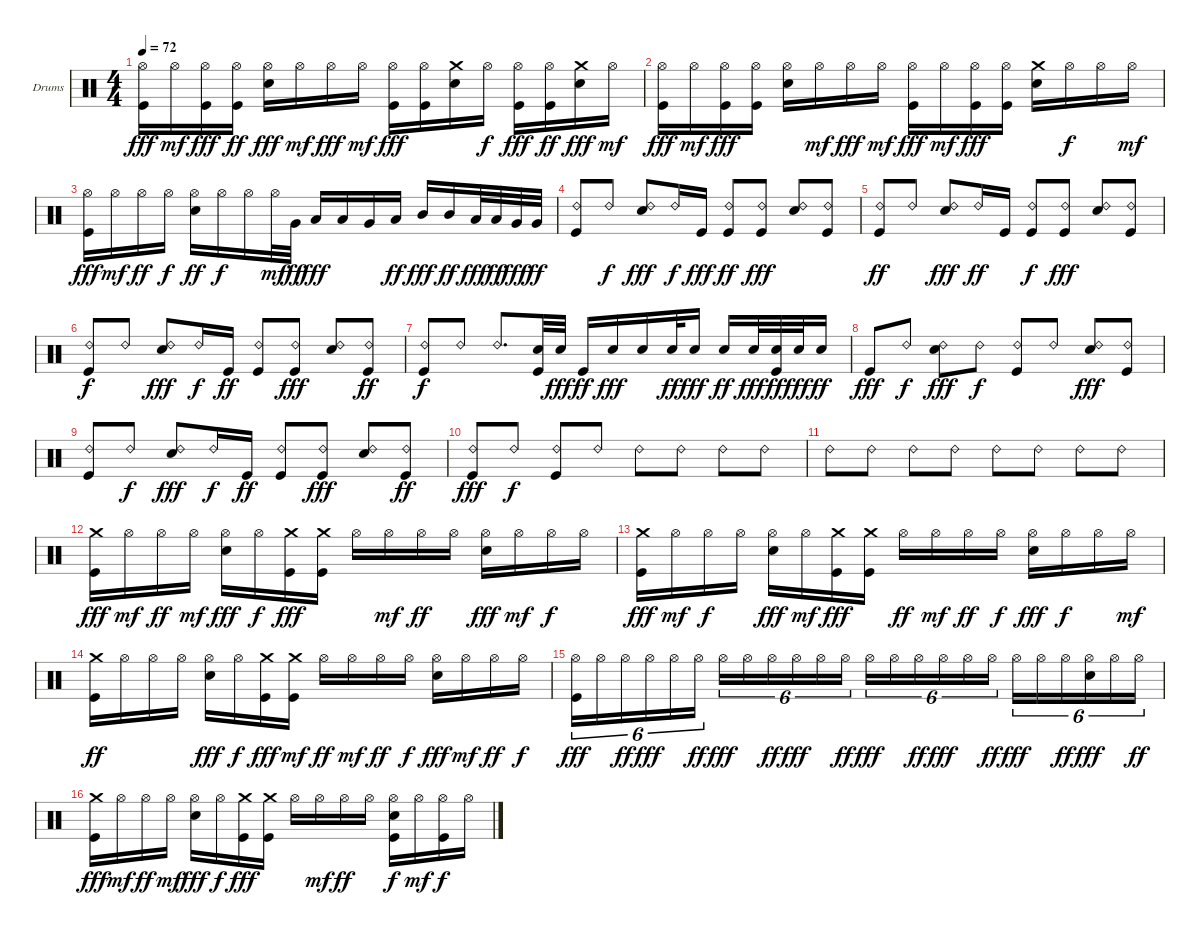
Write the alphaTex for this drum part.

\bracketExtendMode groupsimilarinstruments
\firstSystemTrackNameOrientation horizontal
\otherSystemsTrackNameOrientation horizontal
\track ("Drumkit" "Drums") {instrument percussion}
\staff {score}
\articulation defaults
\ts (4 4)
\tempo 72
\clef neutral
\ks c
("Kick (hit)" "Hi-Hat (open)").16{dy fff} "Hi-Hat (open)".16{dy mf} ("Kick (hit)" "Hi-Hat (open)").16{dy fff} ("Kick (hit)" "Hi-Hat (open)").16{dy ff} ("Snare (hit) 2" "Hi-Hat (open)").16{dy fff} "Hi-Hat (open)".16{dy mf} "Hi-Hat (open)".16{dy fff} "Hi-Hat (open)".16{dy mf} ("Kick (hit)" "Hi-Hat (open)").16{dy fff} ("Kick (hit)" "Hi-Hat (open)").16 ("Snare (hit) 2" "Crash medium (hit)").16 "Hi-Hat (open)".16{dy f} ("Kick (hit)" "Hi-Hat (open)").16{dy fff} ("Kick (hit)" "Hi-Hat (open)").16{dy ff} ("Snare (hit) 2" "Crash medium (hit)").16{dy fff} "Hi-Hat (open)".16{dy mf} |
("Kick (hit)" "Hi-Hat (open)").16{dy fff} "Hi-Hat (open)".16{dy mf} ("Kick (hit)" "Hi-Hat (open)").16{dy fff} ("Kick (hit)" "Hi-Hat (open)").16 ("Snare (hit) 2" "Hi-Hat (open)").16 "Hi-Hat (open)".16{dy mf} "Hi-Hat (open)".16{dy fff} "Hi-Hat (open)".16{dy mf} ("Kick (hit)" "Hi-Hat (open)").16{dy fff} "Hi-Hat (open)".16{dy mf} ("Kick (hit)" "Hi-Hat (open)").16{dy fff} ("Kick (hit)" "Hi-Hat (open)").16 ("Snare (hit) 2" "Crash medium (hit)").16 "Hi-Hat (open)".16{dy f} "Hi-Hat (open)".16 "Hi-Hat (open)".16{dy mf} |
("Kick (hit)" "Hi-Hat (open)").16{dy fff} "Hi-Hat (open)".16{dy mf} "Hi-Hat (open)".16{dy ff} "Hi-Hat (open)".16{dy f} ("Hi-Hat (open)" "Snare (hit) 2").16{dy ff} "Hi-Hat (open)".16{dy f} "Hi-Hat (open)".16 "Hi-Hat (open)".32{dy mf} "Very Low Tom (hit)".32{dy ff} "Low Tom (hit)".16{dy fff} "Low Tom (hit)".16 "Very Low Tom (hit)".16 "Low Tom (hit)".16{dy ff} "Mid Tom (hit)".16{dy fff} "Mid Tom (hit)".16{dy ff} "Low Tom (hit)".32{dy fff} "Low Tom (hit)".32{dy ff} "Very Low Tom (hit)".32{dy fff} "Very Low Tom (hit)".32{dy ff} |
("Ride (bell) 2" "Kick (hit)").8 "Ride (bell) 2".8{dy f} ("Snare (hit) 2" "Ride (bell) 2").8{dy fff} "Ride (bell) 2".16{dy f} "Kick (hit)".16{dy fff} ("Ride (bell) 2" "Kick (hit)").8{dy ff} ("Kick (hit)" "Ride (bell) 2").8{dy fff} ("Snare (hit) 2" "Ride (bell) 2").8 ("Kick (hit)" "Ride (bell) 2").8 |
("Ride (bell) 2" "Kick (hit)").8{dy ff} "Ride (bell) 2".8 ("Snare (hit) 2" "Ride (bell) 2").8{dy fff} "Ride (bell) 2".16{dy ff} "Kick (hit)".16 ("Ride (bell) 2" "Kick (hit)").8{dy f} ("Kick (hit)" "Ride (bell) 2").8{dy fff} ("Snare (hit) 2" "Ride (bell) 2").8 ("Kick (hit)" "Ride (bell) 2").8 |
("Ride (bell) 2" "Kick (hit)").8{dy f} "Ride (bell) 2".8 ("Snare (hit) 2" "Ride (bell) 2").8{dy fff} "Ride (bell) 2".16{dy f} "Kick (hit)".16{dy ff} ("Kick (hit)" "Ride (bell) 2").8 ("Kick (hit)" "Ride (bell) 2").8{dy fff} ("Snare (hit) 2" "Ride (bell) 2").8 ("Kick (hit)" "Ride (bell) 2").8{dy ff} |
("Ride (bell) 2" "Kick (hit)").8{dy f} "Ride (bell) 2".8 "Ride (bell) 2".8{d} ("Kick (hit)" "Snare (hit) 2").32 "Snare (hit) 2".32{dy fff} "Kick (hit)".16{dy ff} "Snare (hit) 2".16{dy fff} "Snare (hit) 2".16 "Snare (hit) 2".32{dy ff} "Snare (hit) 2".16{dy fff} "Snare (hit) 2".16{dy ff} "Snare (hit) 2".32{dy fff} ("Kick (hit)" "Snare (hit) 2").32{dy ff} "Snare (hit) 2".32{dy fff} "Snare (hit) 2".16{dy ff} |
"Kick (hit)".8{dy fff} "Ride (bell) 2".8{dy f} ("Snare (hit) 2" "Ride (bell) 2").8{dy fff} "Ride (bell) 2".8{dy f} ("Ride (bell) 2" "Kick (hit)").8 "Ride (bell) 2".8 ("Snare (hit) 2" "Ride (bell) 2").8{dy fff} ("Kick (hit)" "Ride (bell) 2").8 |
("Kick (hit)" "Ride (bell) 2").8 "Ride (bell) 2".8{dy f} ("Snare (hit) 2" "Ride (bell) 2").8{dy fff} "Ride (bell) 2".16{dy f} "Kick (hit)".16{dy ff} ("Kick (hit)" "Ride (bell) 2").8 ("Kick (hit)" "Ride (bell) 2").8{dy fff} ("Snare (hit) 2" "Ride (bell) 2").8 ("Kick (hit)" "Ride (bell) 2").8{dy ff} |
("Kick (hit)" "Ride (bell) 2").8{dy fff} "Ride (bell) 2".8{dy f} ("Ride (bell) 2" "Kick (hit)").8 "Ride (bell) 2".8 "Ride (bell) 2".8 "Ride (bell) 2".8 "Ride (bell) 2".8 "Ride (bell) 2".8 |
"Ride (bell) 2".8 "Ride (bell) 2".8 "Ride (bell) 2".8 "Ride (bell) 2".8 "Ride (bell) 2".8 "Ride (bell) 2".8 "Ride (bell) 2".8 "Ride (bell) 2".8 |
("Kick (hit)" "Crash medium (hit)").16{dy fff} "Hi-Hat (open)".16{dy mf} "Hi-Hat (open)".16{dy ff} "Hi-Hat (open)".16{dy mf} ("Snare (hit) 2" "Hi-Hat (open)").16{dy fff} "Hi-Hat (open)".16{dy f} ("Kick (hit)" "Crash medium (hit)").16{dy fff} ("Kick (hit)" "Crash medium (hit)").16 "Hi-Hat (open)".16 "Hi-Hat (open)".16{dy mf} "Hi-Hat (open)".16{dy ff} "Hi-Hat (open)".16 ("Snare (hit) 2" "Hi-Hat (open)").16{dy fff} "Hi-Hat (open)".16{dy mf} "Hi-Hat (open)".16{dy f} "Hi-Hat (open)".16 |
("Kick (hit)" "Crash medium (hit)").16{dy fff} "Hi-Hat (open)".16{dy mf} "Hi-Hat (open)".16{dy f} "Hi-Hat (open)".16 ("Snare (hit) 2" "Hi-Hat (open)").16{dy fff} "Hi-Hat (open)".16{dy mf} ("Kick (hit)" "Crash medium (hit)").16{dy fff} ("Kick (hit)" "Crash medium (hit)").16 "Hi-Hat (open)".16{dy ff} "Hi-Hat (open)".16{dy mf} "Hi-Hat (open)".16{dy ff} "Hi-Hat (open)".16{dy f} ("Snare (hit) 2" "Hi-Hat (open)").16{dy fff} "Hi-Hat (open)".16{dy f} "Hi-Hat (open)".16 "Hi-Hat (open)".16{dy mf} |
("Crash medium (hit)" "Kick (hit)").16{dy ff} "Hi-Hat (open)".16 "Hi-Hat (open)".16 "Hi-Hat (open)".16 ("Snare (hit) 2" "Hi-Hat (open)").16{dy fff} "Hi-Hat (open)".16{dy f} ("Kick (hit)" "Crash medium (hit)").16{dy fff} ("Crash medium (hit)" "Kick (hit)").16{dy mf} "Hi-Hat (open)".16{dy ff} "Hi-Hat (open)".16{dy mf} "Hi-Hat (open)".16{dy ff} "Hi-Hat (open)".16{dy f} ("Snare (hit) 2" "Hi-Hat (open)").16{dy fff} "Hi-Hat (open)".16{dy mf} "Hi-Hat (open)".16{dy ff} "Hi-Hat (open)".16{dy f} |
("Kick (hit)" "Hi-Hat (open)").16{tu (6 4) dy fff} "Hi-Hat (open)".16{tu (6 4)} "Hi-Hat (open)".16{tu (6 4) dy ff} "Hi-Hat (open)".16{tu (6 4) dy fff} "Hi-Hat (open)".16{tu (6 4)} "Hi-Hat (open)".16{tu (6 4) dy ff} "Hi-Hat (open)".16{tu (6 4) dy fff} "Hi-Hat (open)".16{tu (6 4)} "Hi-Hat (open)".16{tu (6 4) dy ff} "Hi-Hat (open)".16{tu (6 4) dy fff} "Hi-Hat (open)".16{tu (6 4)} "Hi-Hat (open)".16{tu (6 4) dy ff} "Hi-Hat (open)".16{tu (6 4) dy fff} "Hi-Hat (open)".16{tu (6 4)} "Hi-Hat (open)".16{tu (6 4) dy ff} "Hi-Hat (open)".16{tu (6 4) dy fff} "Hi-Hat (open)".16{tu (6 4)} "Hi-Hat (open)".16{tu (6 4) dy ff} "Hi-Hat (open)".16{tu (6 4) dy fff} "Hi-Hat (open)".16{tu (6 4)} "Hi-Hat (open)".16{tu (6 4) dy ff} ("Hi-Hat (open)" "Snare (hit) 2").16{tu (6 4) dy fff} "Hi-Hat (open)".16{tu (6 4)} "Hi-Hat (open)".16{tu (6 4) dy ff} |
("Kick (hit)" "Crash medium (hit)").16{dy fff} "Hi-Hat (open)".16{dy mf} "Hi-Hat (open)".16{dy ff} "Hi-Hat (open)".16{dy mf} ("Snare (hit) 2" "Hi-Hat (open)").16{dy fff} "Hi-Hat (open)".16{dy f} ("Kick (hit)" "Crash medium (hit)").16{dy fff} ("Kick (hit)" "Crash medium (hit)").16 "Hi-Hat (open)".16 "Hi-Hat (open)".16{dy mf} "Hi-Hat (open)".16{dy ff} "Hi-Hat (open)".16 ("Kick (hit)" "Snare (hit) 2" "Hi-Hat (open)").16{dy f} "Hi-Hat (open)".16{dy mf} ("Hi-Hat (open)" "Kick (hit)").16{dy f} "Hi-Hat (open)".16
